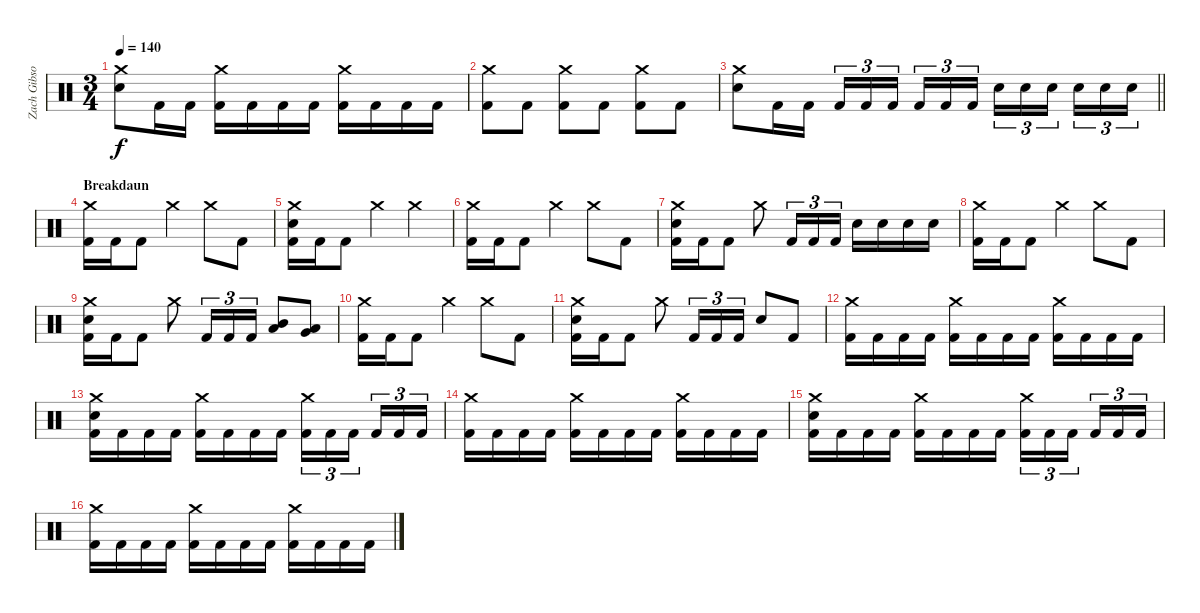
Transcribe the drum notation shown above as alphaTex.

\track ("Zach Gibson" "Zach Gibso") {instrument percussion}
\staff {score}
\articulation defaults
\ts (3 4)
\tempo 140
\clef neutral
\ks c
("Crash medium (hit)" "Snare (hit) 2").8{dy f} "Kick (hit) 2".16 "Kick (hit) 2".16 ("Crash medium (hit)" "Kick (hit) 2").16 "Kick (hit) 2".16 "Kick (hit) 2".16 "Kick (hit) 2".16 ("Crash medium (hit)" "Kick (hit) 2").16 "Kick (hit) 2".16 "Kick (hit) 2".16 "Kick (hit) 2".16 |
("Crash medium (hit)" "Kick (hit) 2").8 "Kick (hit) 2".8 ("Crash medium (hit)" "Kick (hit) 2").8 "Kick (hit) 2".8 ("Crash medium (hit)" "Kick (hit) 2").8 "Kick (hit) 2".8 |
\barLineRight lightlight
("Crash medium (hit)" "Snare (hit) 2").8 "Kick (hit) 2".16 "Kick (hit) 2".16 "Kick (hit) 2".16{tu (3 2)} "Kick (hit) 2".16{tu (3 2)} "Kick (hit) 2".16{tu (3 2) beam splitsecondary} "Kick (hit) 2".16{tu (3 2)} "Kick (hit) 2".16{tu (3 2)} "Kick (hit) 2".16{tu (3 2)} "Snare (hit) 2".16{tu (3 2)} "Snare (hit) 2".16{tu (3 2)} "Snare (hit) 2".16{tu (3 2) beam splitsecondary} "Snare (hit) 2".16{tu (3 2)} "Snare (hit) 2".16{tu (3 2)} "Snare (hit) 2".16{tu (3 2)} |
\section ("" "Breakdaun")
("Crash medium (hit)" "Kick (hit) 2").16 "Kick (hit) 2".16 "Kick (hit) 2".8 "Crash medium (hit)".4 "Crash medium (hit)".8 "Kick (hit) 2".8 |
("Crash medium (hit)" "Snare (hit) 2" "Kick (hit) 2").16 "Kick (hit) 2".16 "Kick (hit) 2".8 "Crash medium (hit)".4 "Crash medium (hit)".4 |
("Crash medium (hit)" "Kick (hit) 2").16 "Kick (hit) 2".16 "Kick (hit) 2".8 "Crash medium (hit)".4 "Crash medium (hit)".8 "Kick (hit) 2".8 |
("Crash medium (hit)" "Snare (hit) 2" "Kick (hit) 2").16 "Kick (hit) 2".16 "Kick (hit) 2".8 "Crash medium (hit)".8 "Kick (hit) 2".16{tu (3 2)} "Kick (hit) 2".16{tu (3 2)} "Kick (hit) 2".16{tu (3 2)} "Snare (hit) 2".16 "Snare (hit) 2".16 "Snare (hit) 2".16 "Snare (hit) 2".16 |
("Crash medium (hit)" "Kick (hit) 2").16 "Kick (hit) 2".16 "Kick (hit) 2".8 "Crash medium (hit)".4 "Crash medium (hit)".8 "Kick (hit) 2".8 |
("Crash medium (hit)" "Snare (hit) 2" "Kick (hit) 2").16 "Kick (hit) 2".16 "Kick (hit) 2".8 "Crash medium (hit)".8 "Kick (hit) 2".16{tu (3 2)} "Kick (hit) 2".16{tu (3 2)} "Kick (hit) 2".16{tu (3 2)} ("Low Tom (hit)" "Mid Tom (hit)").8 ("Very Low Tom (hit)" "Low Tom (hit)").8 |
("Crash medium (hit)" "Kick (hit) 2").16 "Kick (hit) 2".16 "Kick (hit) 2".8 "Crash medium (hit)".4 "Crash medium (hit)".8 "Kick (hit) 2".8 |
("Crash medium (hit)" "Snare (hit) 2" "Kick (hit) 2").16 "Kick (hit) 2".16 "Kick (hit) 2".8 "Crash medium (hit)".8 "Kick (hit) 2".16{tu (3 2)} "Kick (hit) 2".16{tu (3 2)} "Kick (hit) 2".16{tu (3 2)} "Snare (hit) 2".8 "Kick (hit) 2".8 |
("Crash medium (hit)" "Kick (hit) 2").16 "Kick (hit) 2".16 "Kick (hit) 2".16 "Kick (hit) 2".16 ("Crash medium (hit)" "Kick (hit) 2").16 "Kick (hit) 2".16 "Kick (hit) 2".16 "Kick (hit) 2".16 ("Crash medium (hit)" "Kick (hit) 2").16 "Kick (hit) 2".16 "Kick (hit) 2".16 "Kick (hit) 2".16 |
("Crash medium (hit)" "Snare (hit) 2" "Kick (hit) 2").16 "Kick (hit) 2".16 "Kick (hit) 2".16 "Kick (hit) 2".16 ("Crash medium (hit)" "Kick (hit) 2").16 "Kick (hit) 2".16 "Kick (hit) 2".16 "Kick (hit) 2".16 ("Crash medium (hit)" "Kick (hit) 2").16{tu (3 2)} "Kick (hit) 2".16{tu (3 2)} "Kick (hit) 2".16{tu (3 2) beam splitsecondary} "Kick (hit) 2".16{tu (3 2)} "Kick (hit) 2".16{tu (3 2)} "Kick (hit) 2".16{tu (3 2)} |
("Crash medium (hit)" "Kick (hit) 2").16 "Kick (hit) 2".16 "Kick (hit) 2".16 "Kick (hit) 2".16 ("Crash medium (hit)" "Kick (hit) 2").16 "Kick (hit) 2".16 "Kick (hit) 2".16 "Kick (hit) 2".16 ("Crash medium (hit)" "Kick (hit) 2").16 "Kick (hit) 2".16 "Kick (hit) 2".16 "Kick (hit) 2".16 |
("Crash medium (hit)" "Snare (hit) 2" "Kick (hit) 2").16 "Kick (hit) 2".16 "Kick (hit) 2".16 "Kick (hit) 2".16 ("Crash medium (hit)" "Kick (hit) 2").16 "Kick (hit) 2".16 "Kick (hit) 2".16 "Kick (hit) 2".16 ("Crash medium (hit)" "Kick (hit) 2").16{tu (3 2)} "Kick (hit) 2".16{tu (3 2)} "Kick (hit) 2".16{tu (3 2) beam splitsecondary} "Kick (hit) 2".16{tu (3 2)} "Kick (hit) 2".16{tu (3 2)} "Kick (hit) 2".16{tu (3 2)} |
("Crash medium (hit)" "Kick (hit) 2").16 "Kick (hit) 2".16 "Kick (hit) 2".16 "Kick (hit) 2".16 ("Crash medium (hit)" "Kick (hit) 2").16 "Kick (hit) 2".16 "Kick (hit) 2".16 "Kick (hit) 2".16 ("Crash medium (hit)" "Kick (hit) 2").16 "Kick (hit) 2".16 "Kick (hit) 2".16 "Kick (hit) 2".16
